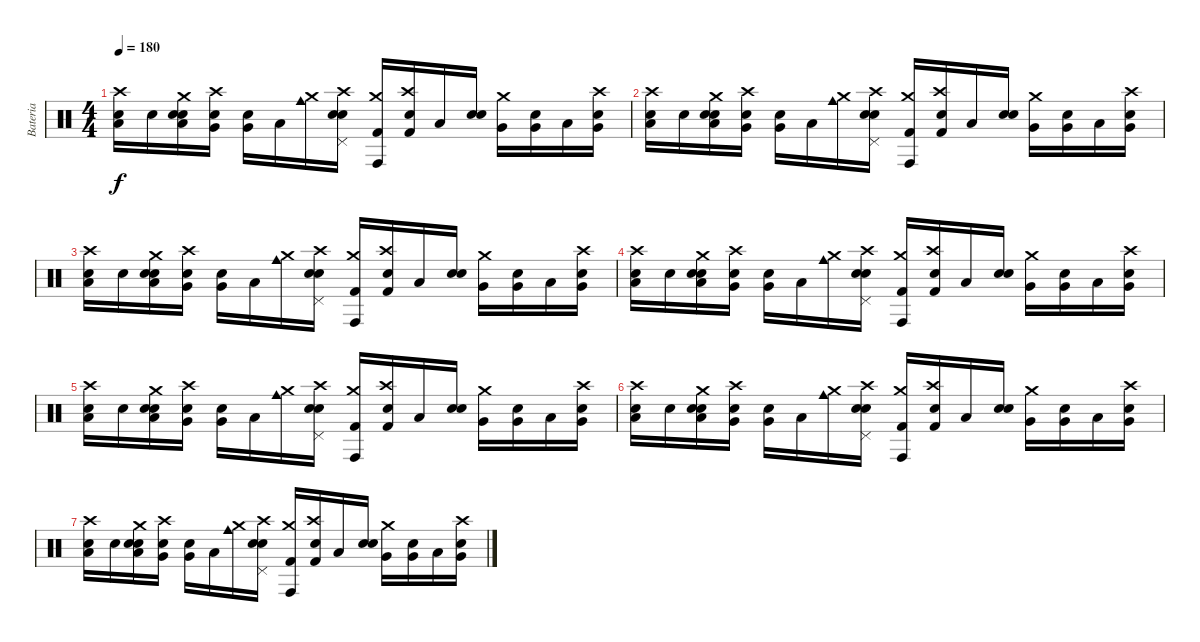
\track ("Bateria" "Bateria") {instrument percussion}
\staff {score}
\articulation defaults
\ts (4 4)
\tempo 180
\clef neutral
\ks c
("Crash high (hit)" "Low Tom (hit)" "Electric Snare (hit)").16{dy f} "Metronome (bell)".16 ("Crash medium (hit)" "Low Tom (hit)" "Metronome (bell)" "Electric Snare (hit)").16 ("Crash high (hit)" "Very Low Tom (hit)" "Snare (hit) 2").16 ("Very Low Tom (hit)" "Electric Snare (hit)").16 "Low Tom (hit)".16 ("Crash medium (hit)" "Cowbell medium (hit)").16 ("Crash high (hit)" "Metronome (bell)" "Pedal Hi-Hat (hit)" "Snare (hit) 2").16 ("Crash medium (hit)" "Kick (hit) 2" "Conga high (hit)").16 ("Crash high (hit)" "Kick (hit) 2" "Electric Snare (hit)").16 "Low Tom (hit)".16 ("Metronome (bell)" "Snare (hit) 2").16 ("Crash medium (hit)" "Very Low Tom (hit)").16 ("Very Low Tom (hit)" "Electric Snare (hit)").16 "Low Tom (hit)".16 ("Crash high (hit)" "Very Low Tom (hit)" "Electric Snare (hit)").16 |
("Crash high (hit)" "Low Tom (hit)" "Electric Snare (hit)").16 "Metronome (bell)".16 ("Crash medium (hit)" "Low Tom (hit)" "Metronome (bell)" "Electric Snare (hit)").16 ("Crash high (hit)" "Very Low Tom (hit)" "Snare (hit) 2").16 ("Very Low Tom (hit)" "Electric Snare (hit)").16 "Low Tom (hit)".16 ("Crash medium (hit)" "Cowbell medium (hit)").16 ("Crash high (hit)" "Metronome (bell)" "Pedal Hi-Hat (hit)" "Snare (hit) 2").16 ("Crash medium (hit)" "Kick (hit) 2" "Conga high (hit)").16 ("Crash high (hit)" "Kick (hit) 2" "Electric Snare (hit)").16 "Low Tom (hit)".16 ("Metronome (bell)" "Snare (hit) 2").16 ("Crash medium (hit)" "Very Low Tom (hit)").16 ("Very Low Tom (hit)" "Electric Snare (hit)").16 "Low Tom (hit)".16 ("Crash high (hit)" "Very Low Tom (hit)" "Electric Snare (hit)").16 |
("Crash high (hit)" "Low Tom (hit)" "Electric Snare (hit)").16 "Metronome (bell)".16 ("Crash medium (hit)" "Low Tom (hit)" "Metronome (bell)" "Electric Snare (hit)").16 ("Crash high (hit)" "Very Low Tom (hit)" "Snare (hit) 2").16 ("Very Low Tom (hit)" "Electric Snare (hit)").16 "Low Tom (hit)".16 ("Crash medium (hit)" "Cowbell medium (hit)").16 ("Crash high (hit)" "Metronome (bell)" "Pedal Hi-Hat (hit)" "Snare (hit) 2").16 ("Crash medium (hit)" "Kick (hit) 2" "Conga high (hit)").16 ("Crash high (hit)" "Kick (hit) 2" "Electric Snare (hit)").16 "Low Tom (hit)".16 ("Metronome (bell)" "Snare (hit) 2").16 ("Crash medium (hit)" "Very Low Tom (hit)").16 ("Very Low Tom (hit)" "Electric Snare (hit)").16 "Low Tom (hit)".16 ("Crash high (hit)" "Very Low Tom (hit)" "Electric Snare (hit)").16 |
("Crash high (hit)" "Low Tom (hit)" "Electric Snare (hit)").16 "Metronome (bell)".16 ("Crash medium (hit)" "Low Tom (hit)" "Metronome (bell)" "Electric Snare (hit)").16 ("Crash high (hit)" "Very Low Tom (hit)" "Snare (hit) 2").16 ("Very Low Tom (hit)" "Electric Snare (hit)").16 "Low Tom (hit)".16 ("Crash medium (hit)" "Cowbell medium (hit)").16 ("Crash high (hit)" "Metronome (bell)" "Pedal Hi-Hat (hit)" "Snare (hit) 2").16 ("Crash medium (hit)" "Kick (hit) 2" "Conga high (hit)").16 ("Crash high (hit)" "Kick (hit) 2" "Electric Snare (hit)").16 "Low Tom (hit)".16 ("Metronome (bell)" "Snare (hit) 2").16 ("Crash medium (hit)" "Very Low Tom (hit)").16 ("Very Low Tom (hit)" "Electric Snare (hit)").16 "Low Tom (hit)".16 ("Crash high (hit)" "Very Low Tom (hit)" "Electric Snare (hit)").16 |
("Crash high (hit)" "Low Tom (hit)" "Electric Snare (hit)").16 "Metronome (bell)".16 ("Crash medium (hit)" "Low Tom (hit)" "Metronome (bell)" "Electric Snare (hit)").16 ("Crash high (hit)" "Very Low Tom (hit)" "Snare (hit) 2").16 ("Very Low Tom (hit)" "Electric Snare (hit)").16 "Low Tom (hit)".16 ("Crash medium (hit)" "Cowbell medium (hit)").16 ("Crash high (hit)" "Metronome (bell)" "Pedal Hi-Hat (hit)" "Snare (hit) 2").16 ("Crash medium (hit)" "Kick (hit) 2" "Conga high (hit)").16 ("Crash high (hit)" "Kick (hit) 2" "Electric Snare (hit)").16 "Low Tom (hit)".16 ("Metronome (bell)" "Snare (hit) 2").16 ("Crash medium (hit)" "Very Low Tom (hit)").16 ("Very Low Tom (hit)" "Electric Snare (hit)").16 "Low Tom (hit)".16 ("Crash high (hit)" "Very Low Tom (hit)" "Electric Snare (hit)").16 |
("Crash high (hit)" "Low Tom (hit)" "Electric Snare (hit)").16 "Metronome (bell)".16 ("Crash medium (hit)" "Low Tom (hit)" "Metronome (bell)" "Electric Snare (hit)").16 ("Crash high (hit)" "Very Low Tom (hit)" "Snare (hit) 2").16 ("Very Low Tom (hit)" "Electric Snare (hit)").16 "Low Tom (hit)".16 ("Crash medium (hit)" "Cowbell medium (hit)").16 ("Crash high (hit)" "Metronome (bell)" "Pedal Hi-Hat (hit)" "Snare (hit) 2").16 ("Crash medium (hit)" "Kick (hit) 2" "Conga high (hit)").16 ("Crash high (hit)" "Kick (hit) 2" "Electric Snare (hit)").16 "Low Tom (hit)".16 ("Metronome (bell)" "Snare (hit) 2").16 ("Crash medium (hit)" "Very Low Tom (hit)").16 ("Very Low Tom (hit)" "Electric Snare (hit)").16 "Low Tom (hit)".16 ("Crash high (hit)" "Very Low Tom (hit)" "Electric Snare (hit)").16 |
("Crash high (hit)" "Low Tom (hit)" "Electric Snare (hit)").16 "Metronome (bell)".16 ("Crash medium (hit)" "Low Tom (hit)" "Metronome (bell)" "Electric Snare (hit)").16 ("Crash high (hit)" "Very Low Tom (hit)" "Snare (hit) 2").16 ("Very Low Tom (hit)" "Electric Snare (hit)").16 "Low Tom (hit)".16 ("Crash medium (hit)" "Cowbell medium (hit)").16 ("Crash high (hit)" "Metronome (bell)" "Pedal Hi-Hat (hit)" "Snare (hit) 2").16 ("Crash medium (hit)" "Kick (hit) 2" "Conga high (hit)").16 ("Crash high (hit)" "Kick (hit) 2" "Electric Snare (hit)").16 "Low Tom (hit)".16 ("Metronome (bell)" "Snare (hit) 2").16 ("Crash medium (hit)" "Very Low Tom (hit)").16 ("Very Low Tom (hit)" "Electric Snare (hit)").16 "Low Tom (hit)".16 ("Crash high (hit)" "Very Low Tom (hit)" "Electric Snare (hit)").16
